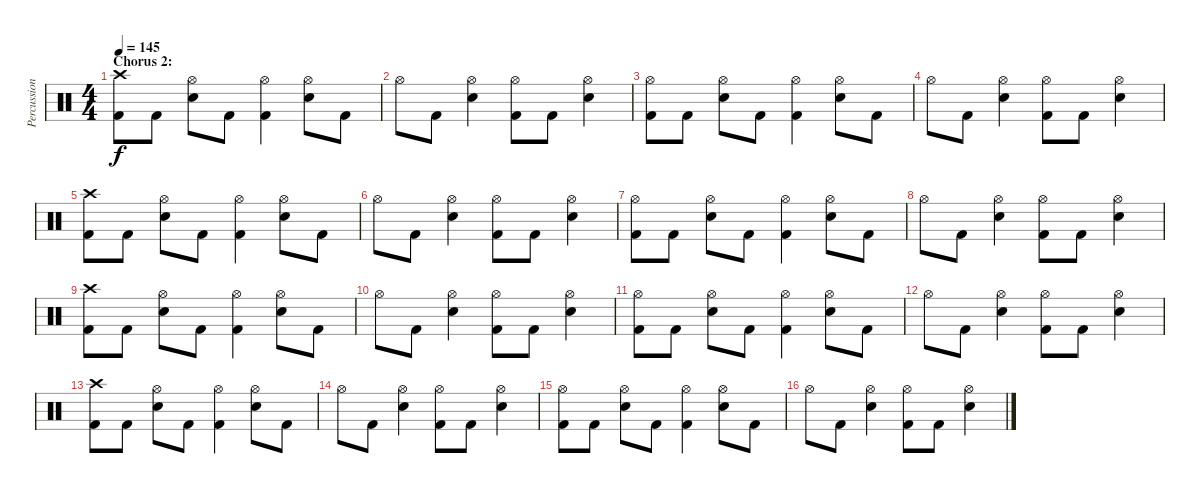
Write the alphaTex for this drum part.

\track ("Percussion" "Percussion") {instrument percussion}
\staff {score}
\articulation defaults
\ts (4 4)
\section ("" "Chorus 2:")
\tempo 145
\clef neutral
\ks c
("Crash high (hit)" "Kick (hit) 2").8{dy f} "Kick (hit) 2".8 ("Hi-Hat (open)" "Snare (hit) 2").8 "Kick (hit) 2".8 ("Hi-Hat (open)" "Kick (hit) 2").4 ("Hi-Hat (open)" "Snare (hit) 2").8 "Kick (hit) 2".8 |
"Hi-Hat (open)".8 "Kick (hit) 2".8 ("Hi-Hat (open)" "Snare (hit) 2").4 ("Hi-Hat (open)" "Kick (hit) 2").8 "Kick (hit) 2".8 ("Hi-Hat (open)" "Snare (hit) 2").4 |
("Hi-Hat (open)" "Kick (hit) 2").8 "Kick (hit) 2".8 ("Hi-Hat (open)" "Snare (hit) 2").8 "Kick (hit) 2".8 ("Hi-Hat (open)" "Kick (hit) 2").4 ("Hi-Hat (open)" "Snare (hit) 2").8 "Kick (hit) 2".8 |
"Hi-Hat (open)".8 "Kick (hit) 2".8 ("Hi-Hat (open)" "Snare (hit) 2").4 ("Hi-Hat (open)" "Kick (hit) 2").8 "Kick (hit) 2".8 ("Hi-Hat (open)" "Snare (hit) 2").4 |
("Crash high (hit)" "Kick (hit) 2").8 "Kick (hit) 2".8 ("Hi-Hat (open)" "Snare (hit) 2").8 "Kick (hit) 2".8 ("Hi-Hat (open)" "Kick (hit) 2").4 ("Hi-Hat (open)" "Snare (hit) 2").8 "Kick (hit) 2".8 |
"Hi-Hat (open)".8 "Kick (hit) 2".8 ("Hi-Hat (open)" "Snare (hit) 2").4 ("Hi-Hat (open)" "Kick (hit) 2").8 "Kick (hit) 2".8 ("Hi-Hat (open)" "Snare (hit) 2").4 |
("Hi-Hat (open)" "Kick (hit) 2").8 "Kick (hit) 2".8 ("Hi-Hat (open)" "Snare (hit) 2").8 "Kick (hit) 2".8 ("Hi-Hat (open)" "Kick (hit) 2").4 ("Hi-Hat (open)" "Snare (hit) 2").8 "Kick (hit) 2".8 |
"Hi-Hat (open)".8 "Kick (hit) 2".8 ("Hi-Hat (open)" "Snare (hit) 2").4 ("Hi-Hat (open)" "Kick (hit) 2").8 "Kick (hit) 2".8 ("Hi-Hat (open)" "Snare (hit) 2").4 |
("Crash high (hit)" "Kick (hit) 2").8 "Kick (hit) 2".8 ("Hi-Hat (open)" "Snare (hit) 2").8 "Kick (hit) 2".8 ("Hi-Hat (open)" "Kick (hit) 2").4 ("Hi-Hat (open)" "Snare (hit) 2").8 "Kick (hit) 2".8 |
"Hi-Hat (open)".8 "Kick (hit) 2".8 ("Hi-Hat (open)" "Snare (hit) 2").4 ("Hi-Hat (open)" "Kick (hit) 2").8 "Kick (hit) 2".8 ("Hi-Hat (open)" "Snare (hit) 2").4 |
("Hi-Hat (open)" "Kick (hit) 2").8 "Kick (hit) 2".8 ("Hi-Hat (open)" "Snare (hit) 2").8 "Kick (hit) 2".8 ("Hi-Hat (open)" "Kick (hit) 2").4 ("Hi-Hat (open)" "Snare (hit) 2").8 "Kick (hit) 2".8 |
"Hi-Hat (open)".8 "Kick (hit) 2".8 ("Hi-Hat (open)" "Snare (hit) 2").4 ("Hi-Hat (open)" "Kick (hit) 2").8 "Kick (hit) 2".8 ("Hi-Hat (open)" "Snare (hit) 2").4 |
("Crash high (hit)" "Kick (hit) 2").8 "Kick (hit) 2".8 ("Hi-Hat (open)" "Snare (hit) 2").8 "Kick (hit) 2".8 ("Hi-Hat (open)" "Kick (hit) 2").4 ("Hi-Hat (open)" "Snare (hit) 2").8 "Kick (hit) 2".8 |
"Hi-Hat (open)".8 "Kick (hit) 2".8 ("Hi-Hat (open)" "Snare (hit) 2").4 ("Hi-Hat (open)" "Kick (hit) 2").8 "Kick (hit) 2".8 ("Hi-Hat (open)" "Snare (hit) 2").4 |
("Hi-Hat (open)" "Kick (hit) 2").8 "Kick (hit) 2".8 ("Hi-Hat (open)" "Snare (hit) 2").8 "Kick (hit) 2".8 ("Hi-Hat (open)" "Kick (hit) 2").4 ("Hi-Hat (open)" "Snare (hit) 2").8 "Kick (hit) 2".8 |
"Hi-Hat (open)".8 "Kick (hit) 2".8 ("Hi-Hat (open)" "Snare (hit) 2").4 ("Hi-Hat (open)" "Kick (hit) 2").8 "Kick (hit) 2".8 ("Hi-Hat (open)" "Snare (hit) 2").4
